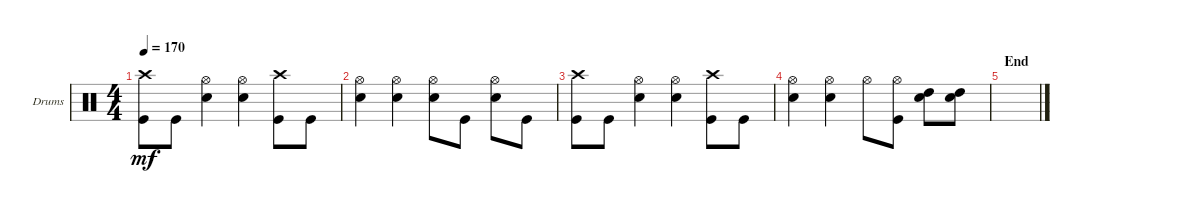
\defaultSystemsLayout 4
\bracketExtendMode groupsimilarinstruments
\firstSystemTrackNameOrientation horizontal
\otherSystemsTrackNameOrientation horizontal
\track ("Drumkit" "Drums") {instrument percussion}
\staff {score}
\articulation defaults
\ts (4 4)
\tempo 170
\clef neutral
\ks c
("Crash high (hit)" "Kick (hit)").8{dy mf} "Kick (hit)".8 ("Snare (hit) 2" "Hi-Hat (open)").4 ("Snare (hit) 2" "Hi-Hat (open)").4 ("Crash high (hit)" "Kick (hit)").8 "Kick (hit)".8 |
("Snare (hit) 2" "Hi-Hat (open)").4 ("Snare (hit) 2" "Hi-Hat (open)").4 ("Snare (hit) 2" "Hi-Hat (open)").8 "Kick (hit)".8 ("Snare (hit) 2" "Hi-Hat (open)").8 "Kick (hit)".8 |
("Crash high (hit)" "Kick (hit)").8 "Kick (hit)".8 ("Snare (hit) 2" "Hi-Hat (open)").4 ("Snare (hit) 2" "Hi-Hat (open)").4 ("Crash high (hit)" "Kick (hit)").8 "Kick (hit)".8 |
("Hi-Hat (open)" "Snare (hit) 2").4 ("Hi-Hat (open)" "Snare (hit) 2").4 "Hi-Hat (open)".8 ("Hi-Hat (open)" "Kick (hit)").8 ("Snare (hit) 2" "High Tom (hit)").8 ("Snare (hit) 2" "High Tom (hit)").8 |
\section ("" "End")
